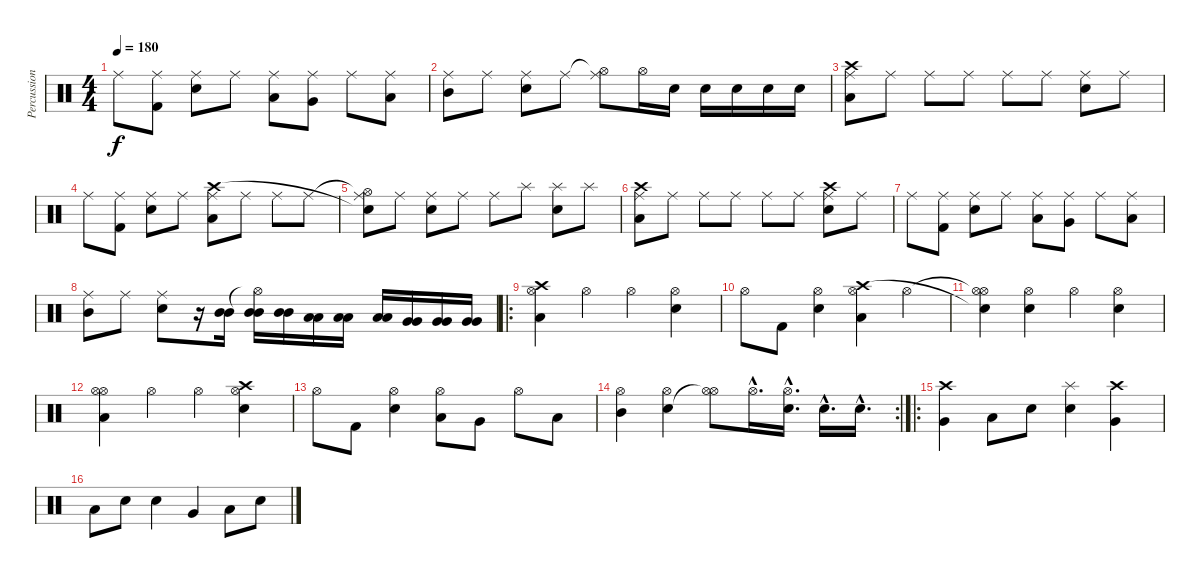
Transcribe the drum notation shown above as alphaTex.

\track ("Percussions" "Percussion") {instrument percussion}
\staff {score}
\articulation defaults
\ts (4 4)
\tempo 180
\clef neutral
\ks c "Ride (middle)".8{dy f}
("Kick (hit) 2" "Ride (middle)").8 ("Snare (hit) 2" "Ride (middle)").8 "Ride (middle)".8 ("Low Tom (hit)" "Ride (middle)").8 ("Very Low Tom (hit)" "Ride (middle)").8 "Ride (middle)".8 ("Low Tom (hit)" "Ride (middle)").8 |
("Mid Tom (hit)" "Ride (middle)").8 "Ride (middle)".8 ("Snare (hit) 2" "Ride (middle)").8 "Ride (middle)".8 ("Hi-Hat (open)"{t} "Ride (middle)").8 "Hi-Hat (open)".16 "Snare (hit) 2".16 "Snare (hit) 2".16 "Snare (hit) 2".16 "Snare (hit) 2".16 "Snare (hit) 2".16 |
("Low Tom (hit)" "Crash high (hit)" "Ride (middle)").8 "Ride (middle)".8 "Ride (middle)".8 "Ride (middle)".8 "Ride (middle)".8 "Ride (middle)".8 ("Snare (hit) 2" "Ride (middle)").8 "Ride (middle)".8 |
"Ride (middle)".8 ("Kick (hit) 2" "Ride (middle)").8 ("Snare (hit) 2" "Ride (middle)").8 "Ride (middle)".8 ("Low Tom (hit)" "Crash high (hit)" "Ride (middle)").8 "Ride (middle)".8 "Ride (middle)".8 "Ride (middle)".8 |
("Hi-Hat (open)"{t} "Snare (hit)"{t} "Ride (middle)").8 "Ride (middle)".8 ("Snare (hit) 2" "Ride (middle)").8 "Ride (middle)".8 "Ride (middle)".8 "Splash (hit)".8 ("Snare (hit) 2" "Splash (hit)").8 "Splash (hit)".8 |
("Low Tom (hit)" "Crash high (hit)" "Ride (middle)").8 "Ride (middle)".8 "Ride (middle)".8 "Ride (middle)".8 "Ride (middle)".8 "Ride (middle)".8 ("Snare (hit) 2" "Crash high (hit)" "Ride (middle)").8 "Ride (middle)".8 |
"Ride (middle)".8 ("Kick (hit) 2" "Ride (middle)").8 ("Snare (hit) 2" "Ride (middle)").8 "Ride (middle)".8 ("Low Tom (hit)" "Ride (middle)").8 ("Very Low Tom (hit)" "Ride (middle)").8 "Ride (middle)".8 ("Low Tom (hit)" "Ride (middle)").8 |
("Mid Tom (hit)" "Ride (middle)").8 "Ride (middle)".8 ("Snare (hit) 2" "Ride (middle)").8 r.16 ("Mid Tom (hit)" "Mid Tom (hit)").16 ("Hi-Hat (open)"{t} "Mid Tom (hit)" "Mid Tom (hit)").16 ("Mid Tom (hit)" "Mid Tom (hit)").16 ("Low Tom (hit)" "Low Tom (hit)").16 ("Low Tom (hit)" "Low Tom (hit)").16 ("Low Tom (hit)" "Low Tom (hit)").16 ("Very Low Tom (hit)" "Very Low Tom (hit)").16 ("Very Low Tom (hit)" "Very Low Tom (hit)").16 ("Very Low Tom (hit)" "Very Low Tom (hit)").16 |
\ro
("Low Tom (hit)" "Crash high (hit)" "Hi-Hat (open)").4 "Hi-Hat (open)".4 "Hi-Hat (open)".4 ("Snare (hit) 2" "Hi-Hat (open)").4 |
"Hi-Hat (open)".8 "Kick (hit) 2".8 ("Snare (hit) 2" "Hi-Hat (open)").4 ("Low Tom (hit)" "Crash high (hit)" "Hi-Hat (open)").4 "Hi-Hat (open)".4 |
("Hi-Hat (open)"{t} "Snare (hit)"{t} "Hi-Hat (open)").4 ("Snare (hit) 2" "Hi-Hat (open)").4 "Hi-Hat (open)".4 ("Snare (hit) 2" "Hi-Hat (open)").4 |
("Low Tom (hit)" "Hi-Hat (open)" "Hi-Hat (open)").4 "Hi-Hat (open)".4 "Hi-Hat (open)".4 ("Snare (hit) 2" "Crash high (hit)" "Hi-Hat (open)").4 |
"Hi-Hat (open)".8 "Kick (hit) 2".8 ("Snare (hit) 2" "Hi-Hat (open)").4 ("Low Tom (hit)" "Hi-Hat (open)").8 "Very Low Tom (hit)".8 "Hi-Hat (open)".8 "Low Tom (hit)".8 |
\rc 2
("Mid Tom (hit)" "Hi-Hat (open)").4 ("Snare (hit) 2" "Hi-Hat (open)").4 ("Hi-Hat (open)"{t} "Hi-Hat (open)").8 "Hi-Hat (open)"{hac}.16{d} ("Snare (hit) 2"{hac} "Hi-Hat (open)"{hac}).16{d} "Snare (hit) 2"{hac}.16{d} "Snare (hit) 2"{hac}.16{d} |
\ro
("Very Low Tom (hit)" "Crash high (hit)").4 "Low Tom (hit)".8 "Electric Snare (hit)".8 ("Snare (hit) 2" "Splash (hit)").4 ("Very Low Tom (hit)" "Crash high (hit)").4 |
"Low Tom (hit)".8 "Electric Snare (hit)".8 "Snare (hit) 2".4 "Very Low Tom (hit)".4 "Low Tom (hit)".8 "Electric Snare (hit)".8
